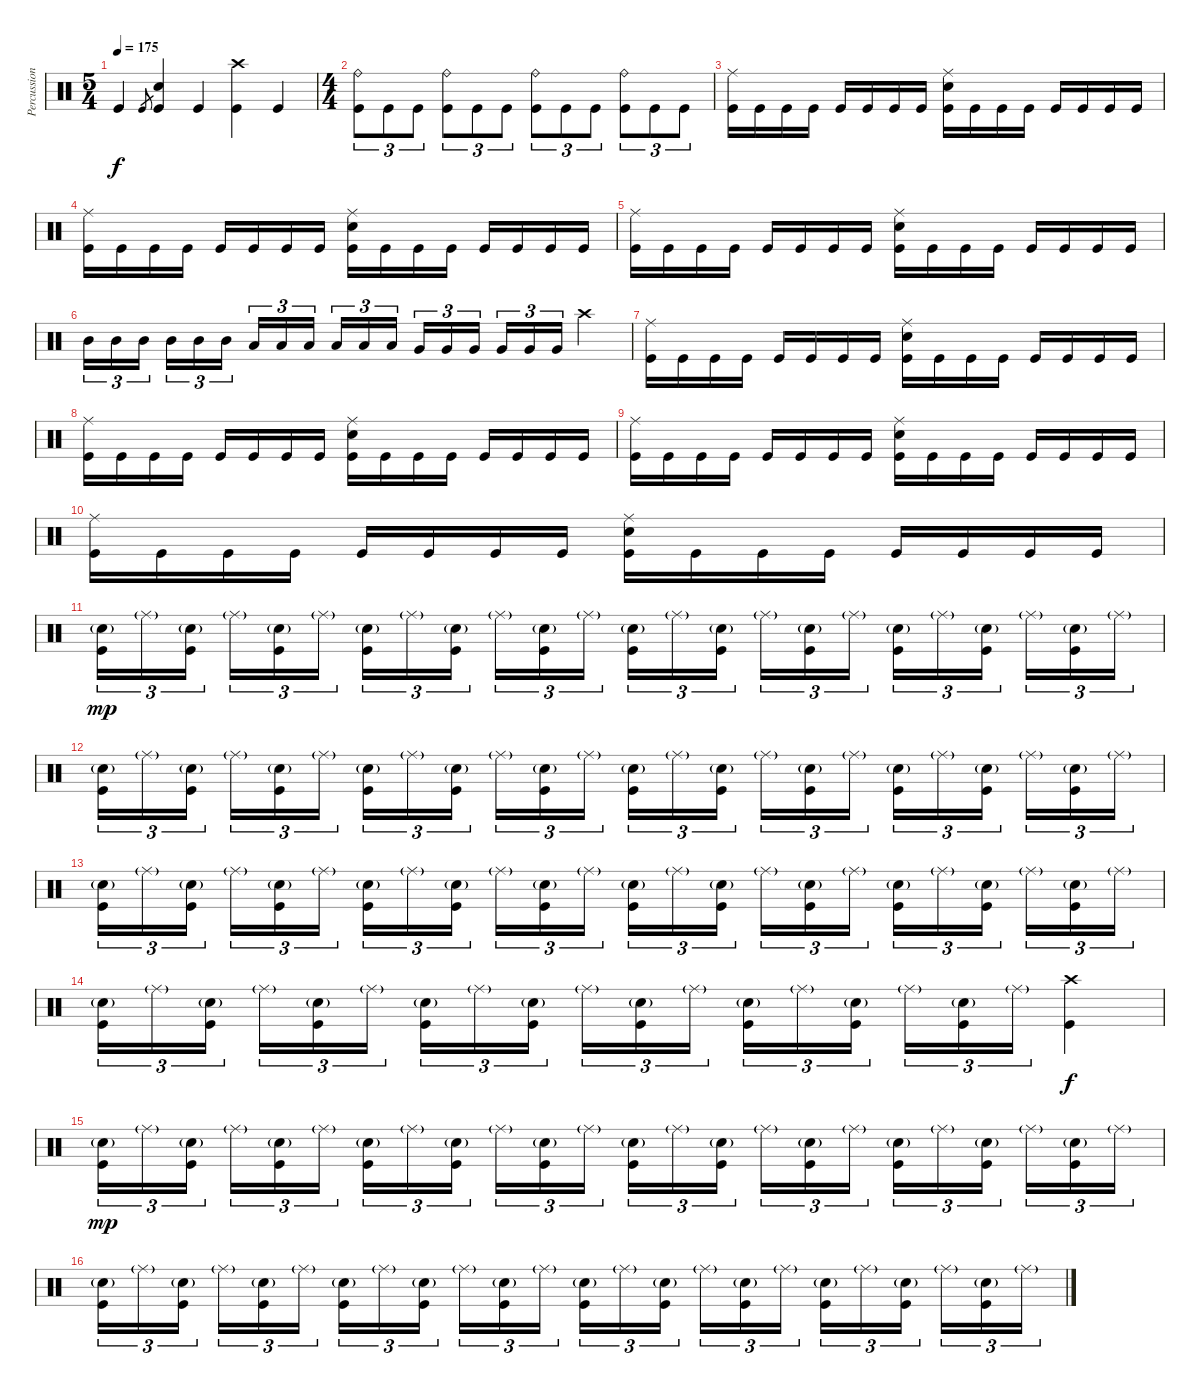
\track ("Percussion" "Percussion") {instrument percussion}
\staff {score}
\articulation defaults
\ts (5 4)
\tempo 175
\clef neutral
\ks c "Kick (hit)".4{dy f} "Kick (hit)".8{gr}
("Electric Snare (hit)" "Kick (hit)").4 "Kick (hit)".4 ("Crash high (hit)" "Kick (hit)").4 "Kick (hit)".4 |
\ts (4 4)
("Ride (bell)" "Kick (hit)").8{tu (3 2)} "Kick (hit)".8{tu (3 2)} "Kick (hit)".8{tu (3 2)} ("Ride (bell)" "Kick (hit)").8{tu (3 2)} "Kick (hit)".8{tu (3 2)} "Kick (hit)".8{tu (3 2)} ("Ride (bell)" "Kick (hit)").8{tu (3 2)} "Kick (hit)".8{tu (3 2)} "Kick (hit)".8{tu (3 2)} ("Ride (bell)" "Kick (hit)").8{tu (3 2)} "Kick (hit)".8{tu (3 2)} "Kick (hit)".8{tu (3 2)} |
("Ride (middle)" "Kick (hit)").16 "Kick (hit)".16 "Kick (hit)".16 "Kick (hit)".16 "Kick (hit)".16 "Kick (hit)".16 "Kick (hit)".16 "Kick (hit)".16 ("Ride (middle)" "Electric Snare (hit)" "Kick (hit)").16 "Kick (hit)".16 "Kick (hit)".16 "Kick (hit)".16 "Kick (hit)".16 "Kick (hit)".16 "Kick (hit)".16 "Kick (hit)".16 |
("Ride (middle)" "Kick (hit)").16 "Kick (hit)".16 "Kick (hit)".16 "Kick (hit)".16 "Kick (hit)".16 "Kick (hit)".16 "Kick (hit)".16 "Kick (hit)".16 ("Ride (middle)" "Electric Snare (hit)" "Kick (hit)").16 "Kick (hit)".16 "Kick (hit)".16 "Kick (hit)".16 "Kick (hit)".16 "Kick (hit)".16 "Kick (hit)".16 "Kick (hit)".16 |
("Ride (middle)" "Kick (hit)").16 "Kick (hit)".16 "Kick (hit)".16 "Kick (hit)".16 "Kick (hit)".16 "Kick (hit)".16 "Kick (hit)".16 "Kick (hit)".16 ("Ride (middle)" "Electric Snare (hit)" "Kick (hit)").16 "Kick (hit)".16 "Kick (hit)".16 "Kick (hit)".16 "Kick (hit)".16 "Kick (hit)".16 "Kick (hit)".16 "Kick (hit)".16 |
"Mid Tom (hit)".16{tu (3 2)} "Mid Tom (hit)".16{tu (3 2)} "Mid Tom (hit)".16{tu (3 2) beam splitsecondary} "Mid Tom (hit)".16{tu (3 2)} "Mid Tom (hit)".16{tu (3 2)} "Mid Tom (hit)".16{tu (3 2)} "Low Tom (hit)".16{tu (3 2)} "Low Tom (hit)".16{tu (3 2)} "Low Tom (hit)".16{tu (3 2) beam splitsecondary} "Low Tom (hit)".16{tu (3 2)} "Low Tom (hit)".16{tu (3 2)} "Low Tom (hit)".16{tu (3 2)} "Very Low Tom (hit)".16{tu (3 2)} "Very Low Tom (hit)".16{tu (3 2)} "Very Low Tom (hit)".16{tu (3 2) beam splitsecondary} "Very Low Tom (hit)".16{tu (3 2)} "Very Low Tom (hit)".16{tu (3 2)} "Very Low Tom (hit)".16{tu (3 2)} "Crash high (hit)".4 |
("Ride (middle)" "Kick (hit)").16 "Kick (hit)".16 "Kick (hit)".16 "Kick (hit)".16 "Kick (hit)".16 "Kick (hit)".16 "Kick (hit)".16 "Kick (hit)".16 ("Ride (middle)" "Electric Snare (hit)" "Kick (hit)").16 "Kick (hit)".16 "Kick (hit)".16 "Kick (hit)".16 "Kick (hit)".16 "Kick (hit)".16 "Kick (hit)".16 "Kick (hit)".16 |
("Ride (middle)" "Kick (hit)").16 "Kick (hit)".16 "Kick (hit)".16 "Kick (hit)".16 "Kick (hit)".16 "Kick (hit)".16 "Kick (hit)".16 "Kick (hit)".16 ("Ride (middle)" "Electric Snare (hit)" "Kick (hit)").16 "Kick (hit)".16 "Kick (hit)".16 "Kick (hit)".16 "Kick (hit)".16 "Kick (hit)".16 "Kick (hit)".16 "Kick (hit)".16 |
("Ride (middle)" "Kick (hit)").16 "Kick (hit)".16 "Kick (hit)".16 "Kick (hit)".16 "Kick (hit)".16 "Kick (hit)".16 "Kick (hit)".16 "Kick (hit)".16 ("Ride (middle)" "Electric Snare (hit)" "Kick (hit)").16 "Kick (hit)".16 "Kick (hit)".16 "Kick (hit)".16 "Kick (hit)".16 "Kick (hit)".16 "Kick (hit)".16 "Kick (hit)".16 |
("Ride (middle)" "Kick (hit)").16 "Kick (hit)".16 "Kick (hit)".16 "Kick (hit)".16 "Kick (hit)".16 "Kick (hit)".16 "Kick (hit)".16 "Kick (hit)".16 ("Ride (middle)" "Electric Snare (hit)" "Kick (hit)").16 "Kick (hit)".16 "Kick (hit)".16 "Kick (hit)".16 "Kick (hit)".16 "Kick (hit)".16 "Kick (hit)".16 "Kick (hit)".16 |
("Electric Snare (hit)"{g} "Kick (hit)").16{tu (3 2) dy mp} "Ride (middle)"{g}.16{tu (3 2)} ("Electric Snare (hit)"{g} "Kick (hit)").16{tu (3 2) beam splitsecondary} "Ride (middle)"{g}.16{tu (3 2)} ("Electric Snare (hit)"{g} "Kick (hit)").16{tu (3 2)} "Ride (middle)"{g}.16{tu (3 2)} ("Electric Snare (hit)"{g} "Kick (hit)").16{tu (3 2)} "Ride (middle)"{g}.16{tu (3 2)} ("Electric Snare (hit)"{g} "Kick (hit)").16{tu (3 2) beam splitsecondary} "Ride (middle)"{g}.16{tu (3 2)} ("Electric Snare (hit)"{g} "Kick (hit)").16{tu (3 2)} "Ride (middle)"{g}.16{tu (3 2)} ("Electric Snare (hit)"{g} "Kick (hit)").16{tu (3 2)} "Ride (middle)"{g}.16{tu (3 2)} ("Electric Snare (hit)"{g} "Kick (hit)").16{tu (3 2) beam splitsecondary} "Ride (middle)"{g}.16{tu (3 2)} ("Electric Snare (hit)"{g} "Kick (hit)").16{tu (3 2)} "Ride (middle)"{g}.16{tu (3 2)} ("Electric Snare (hit)"{g} "Kick (hit)").16{tu (3 2)} "Ride (middle)"{g}.16{tu (3 2)} ("Electric Snare (hit)"{g} "Kick (hit)").16{tu (3 2) beam splitsecondary} "Ride (middle)"{g}.16{tu (3 2)} ("Electric Snare (hit)"{g} "Kick (hit)").16{tu (3 2)} "Ride (middle)"{g}.16{tu (3 2)} |
("Electric Snare (hit)"{g} "Kick (hit)").16{tu (3 2)} "Ride (middle)"{g}.16{tu (3 2)} ("Electric Snare (hit)"{g} "Kick (hit)").16{tu (3 2) beam splitsecondary} "Ride (middle)"{g}.16{tu (3 2)} ("Electric Snare (hit)"{g} "Kick (hit)").16{tu (3 2)} "Ride (middle)"{g}.16{tu (3 2)} ("Electric Snare (hit)"{g} "Kick (hit)").16{tu (3 2)} "Ride (middle)"{g}.16{tu (3 2)} ("Electric Snare (hit)"{g} "Kick (hit)").16{tu (3 2) beam splitsecondary} "Ride (middle)"{g}.16{tu (3 2)} ("Electric Snare (hit)"{g} "Kick (hit)").16{tu (3 2)} "Ride (middle)"{g}.16{tu (3 2)} ("Electric Snare (hit)"{g} "Kick (hit)").16{tu (3 2)} "Ride (middle)"{g}.16{tu (3 2)} ("Electric Snare (hit)"{g} "Kick (hit)").16{tu (3 2) beam splitsecondary} "Ride (middle)"{g}.16{tu (3 2)} ("Electric Snare (hit)"{g} "Kick (hit)").16{tu (3 2)} "Ride (middle)"{g}.16{tu (3 2)} ("Electric Snare (hit)"{g} "Kick (hit)").16{tu (3 2)} "Ride (middle)"{g}.16{tu (3 2)} ("Electric Snare (hit)"{g} "Kick (hit)").16{tu (3 2) beam splitsecondary} "Ride (middle)"{g}.16{tu (3 2)} ("Electric Snare (hit)"{g} "Kick (hit)").16{tu (3 2)} "Ride (middle)"{g}.16{tu (3 2)} |
("Electric Snare (hit)"{g} "Kick (hit)").16{tu (3 2)} "Ride (middle)"{g}.16{tu (3 2)} ("Electric Snare (hit)"{g} "Kick (hit)").16{tu (3 2) beam splitsecondary} "Ride (middle)"{g}.16{tu (3 2)} ("Electric Snare (hit)"{g} "Kick (hit)").16{tu (3 2)} "Ride (middle)"{g}.16{tu (3 2)} ("Electric Snare (hit)"{g} "Kick (hit)").16{tu (3 2)} "Ride (middle)"{g}.16{tu (3 2)} ("Electric Snare (hit)"{g} "Kick (hit)").16{tu (3 2) beam splitsecondary} "Ride (middle)"{g}.16{tu (3 2)} ("Electric Snare (hit)"{g} "Kick (hit)").16{tu (3 2)} "Ride (middle)"{g}.16{tu (3 2)} ("Electric Snare (hit)"{g} "Kick (hit)").16{tu (3 2)} "Ride (middle)"{g}.16{tu (3 2)} ("Electric Snare (hit)"{g} "Kick (hit)").16{tu (3 2) beam splitsecondary} "Ride (middle)"{g}.16{tu (3 2)} ("Electric Snare (hit)"{g} "Kick (hit)").16{tu (3 2)} "Ride (middle)"{g}.16{tu (3 2)} ("Electric Snare (hit)"{g} "Kick (hit)").16{tu (3 2)} "Ride (middle)"{g}.16{tu (3 2)} ("Electric Snare (hit)"{g} "Kick (hit)").16{tu (3 2) beam splitsecondary} "Ride (middle)"{g}.16{tu (3 2)} ("Electric Snare (hit)"{g} "Kick (hit)").16{tu (3 2)} "Ride (middle)"{g}.16{tu (3 2)} |
("Electric Snare (hit)"{g} "Kick (hit)").16{tu (3 2)} "Ride (middle)"{g}.16{tu (3 2)} ("Electric Snare (hit)"{g} "Kick (hit)").16{tu (3 2) beam splitsecondary} "Ride (middle)"{g}.16{tu (3 2)} ("Electric Snare (hit)"{g} "Kick (hit)").16{tu (3 2)} "Ride (middle)"{g}.16{tu (3 2)} ("Electric Snare (hit)"{g} "Kick (hit)").16{tu (3 2)} "Ride (middle)"{g}.16{tu (3 2)} ("Electric Snare (hit)"{g} "Kick (hit)").16{tu (3 2) beam splitsecondary} "Ride (middle)"{g}.16{tu (3 2)} ("Electric Snare (hit)"{g} "Kick (hit)").16{tu (3 2)} "Ride (middle)"{g}.16{tu (3 2)} ("Electric Snare (hit)"{g} "Kick (hit)").16{tu (3 2)} "Ride (middle)"{g}.16{tu (3 2)} ("Electric Snare (hit)"{g} "Kick (hit)").16{tu (3 2) beam splitsecondary} "Ride (middle)"{g}.16{tu (3 2)} ("Electric Snare (hit)"{g} "Kick (hit)").16{tu (3 2)} "Ride (middle)"{g}.16{tu (3 2)} ("Crash high (hit)" "Kick (hit)").4{dy f} |
("Electric Snare (hit)"{g} "Kick (hit)").16{tu (3 2) dy mp} "Ride (middle)"{g}.16{tu (3 2)} ("Electric Snare (hit)"{g} "Kick (hit)").16{tu (3 2) beam splitsecondary} "Ride (middle)"{g}.16{tu (3 2)} ("Electric Snare (hit)"{g} "Kick (hit)").16{tu (3 2)} "Ride (middle)"{g}.16{tu (3 2)} ("Electric Snare (hit)"{g} "Kick (hit)").16{tu (3 2)} "Ride (middle)"{g}.16{tu (3 2)} ("Electric Snare (hit)"{g} "Kick (hit)").16{tu (3 2) beam splitsecondary} "Ride (middle)"{g}.16{tu (3 2)} ("Electric Snare (hit)"{g} "Kick (hit)").16{tu (3 2)} "Ride (middle)"{g}.16{tu (3 2)} ("Electric Snare (hit)"{g} "Kick (hit)").16{tu (3 2)} "Ride (middle)"{g}.16{tu (3 2)} ("Electric Snare (hit)"{g} "Kick (hit)").16{tu (3 2) beam splitsecondary} "Ride (middle)"{g}.16{tu (3 2)} ("Electric Snare (hit)"{g} "Kick (hit)").16{tu (3 2)} "Ride (middle)"{g}.16{tu (3 2)} ("Electric Snare (hit)"{g} "Kick (hit)").16{tu (3 2)} "Ride (middle)"{g}.16{tu (3 2)} ("Electric Snare (hit)"{g} "Kick (hit)").16{tu (3 2) beam splitsecondary} "Ride (middle)"{g}.16{tu (3 2)} ("Electric Snare (hit)"{g} "Kick (hit)").16{tu (3 2)} "Ride (middle)"{g}.16{tu (3 2)} |
("Electric Snare (hit)"{g} "Kick (hit)").16{tu (3 2)} "Ride (middle)"{g}.16{tu (3 2)} ("Electric Snare (hit)"{g} "Kick (hit)").16{tu (3 2) beam splitsecondary} "Ride (middle)"{g}.16{tu (3 2)} ("Electric Snare (hit)"{g} "Kick (hit)").16{tu (3 2)} "Ride (middle)"{g}.16{tu (3 2)} ("Electric Snare (hit)"{g} "Kick (hit)").16{tu (3 2)} "Ride (middle)"{g}.16{tu (3 2)} ("Electric Snare (hit)"{g} "Kick (hit)").16{tu (3 2) beam splitsecondary} "Ride (middle)"{g}.16{tu (3 2)} ("Electric Snare (hit)"{g} "Kick (hit)").16{tu (3 2)} "Ride (middle)"{g}.16{tu (3 2)} ("Electric Snare (hit)"{g} "Kick (hit)").16{tu (3 2)} "Ride (middle)"{g}.16{tu (3 2)} ("Electric Snare (hit)"{g} "Kick (hit)").16{tu (3 2) beam splitsecondary} "Ride (middle)"{g}.16{tu (3 2)} ("Electric Snare (hit)"{g} "Kick (hit)").16{tu (3 2)} "Ride (middle)"{g}.16{tu (3 2)} ("Electric Snare (hit)"{g} "Kick (hit)").16{tu (3 2)} "Ride (middle)"{g}.16{tu (3 2)} ("Electric Snare (hit)"{g} "Kick (hit)").16{tu (3 2) beam splitsecondary} "Ride (middle)"{g}.16{tu (3 2)} ("Electric Snare (hit)"{g} "Kick (hit)").16{tu (3 2)} "Ride (middle)"{g}.16{tu (3 2)}
